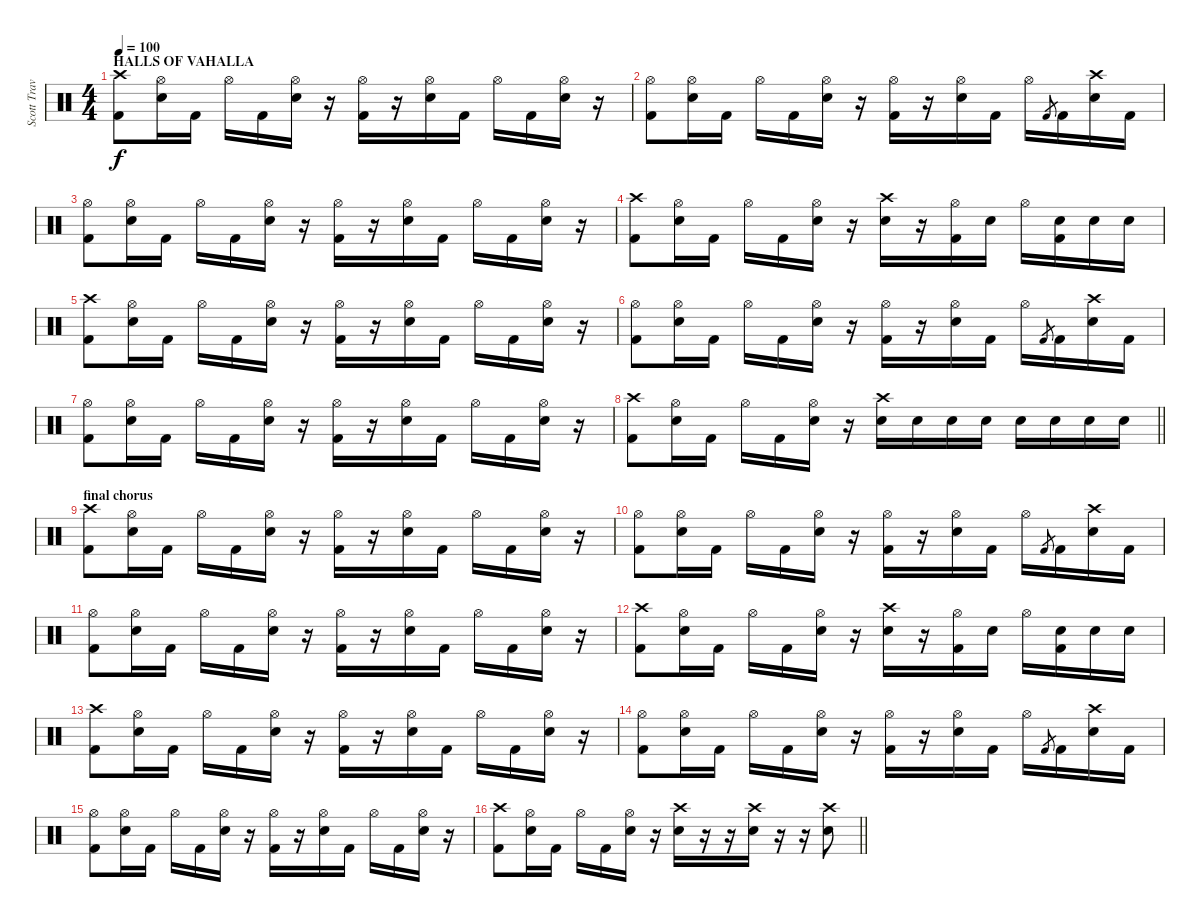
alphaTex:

\track ("Scott Travis" "Scott Trav") {instrument percussion}
\staff {score}
\articulation defaults
\ts (4 4)
\section ("" "HALLS OF VAHALLA")
\tempo 100
\clef neutral
\ks c
("Crash high (hit)" "Kick (hit) 2").8{dy f} ("Hi-Hat (open)" "Snare (hit) 2").16 "Kick (hit) 2".16 "Hi-Hat (open)".16 "Kick (hit) 2".16 ("Hi-Hat (open)" "Snare (hit) 2").16 r.16 ("Hi-Hat (open)" "Kick (hit) 2").16 r.16 ("Hi-Hat (open)" "Snare (hit) 2").16 "Kick (hit) 2".16 "Hi-Hat (open)".16 "Kick (hit) 2".16 ("Hi-Hat (open)" "Snare (hit) 2").16 r.16 |
("Hi-Hat (open)" "Kick (hit) 2").8 ("Hi-Hat (open)" "Snare (hit) 2").16 "Kick (hit) 2".16 "Hi-Hat (open)".16 "Kick (hit) 2".16 ("Hi-Hat (open)" "Snare (hit) 2").16 r.16 ("Hi-Hat (open)" "Kick (hit) 2").16 r.16 ("Hi-Hat (open)" "Snare (hit) 2").16 "Kick (hit) 2".16 "Hi-Hat (open)".16 "Kick (hit) 2".8{gr} "Kick (hit) 2".16 ("Crash high (hit)" "Snare (hit) 2").16 "Kick (hit) 2".16 |
("Hi-Hat (open)" "Kick (hit) 2").8 ("Hi-Hat (open)" "Snare (hit) 2").16 "Kick (hit) 2".16 "Hi-Hat (open)".16 "Kick (hit) 2".16 ("Hi-Hat (open)" "Snare (hit) 2").16 r.16 ("Hi-Hat (open)" "Kick (hit) 2").16 r.16 ("Hi-Hat (open)" "Snare (hit) 2").16 "Kick (hit) 2".16 "Hi-Hat (open)".16 "Kick (hit) 2".16 ("Hi-Hat (open)" "Snare (hit) 2").16 r.16 |
("Crash high (hit)" "Kick (hit) 2").8 ("Hi-Hat (open)" "Snare (hit) 2").16 "Kick (hit) 2".16 "Hi-Hat (open)".16 "Kick (hit) 2".16 ("Hi-Hat (open)" "Snare (hit) 2").16 r.16 ("Crash high (hit)" "Snare (hit) 2").16 r.16 ("Hi-Hat (open)" "Kick (hit) 2").16 "Snare (hit) 2".16 "Hi-Hat (open)".16 ("Snare (hit) 2" "Kick (hit) 2").16 "Snare (hit) 2".16 "Snare (hit) 2".16 |
("Crash high (hit)" "Kick (hit) 2").8 ("Hi-Hat (open)" "Snare (hit) 2").16 "Kick (hit) 2".16 "Hi-Hat (open)".16 "Kick (hit) 2".16 ("Hi-Hat (open)" "Snare (hit) 2").16 r.16 ("Hi-Hat (open)" "Kick (hit) 2").16 r.16 ("Hi-Hat (open)" "Snare (hit) 2").16 "Kick (hit) 2".16 "Hi-Hat (open)".16 "Kick (hit) 2".16 ("Hi-Hat (open)" "Snare (hit) 2").16 r.16 |
("Hi-Hat (open)" "Kick (hit) 2").8 ("Hi-Hat (open)" "Snare (hit) 2").16 "Kick (hit) 2".16 "Hi-Hat (open)".16 "Kick (hit) 2".16 ("Hi-Hat (open)" "Snare (hit) 2").16 r.16 ("Hi-Hat (open)" "Kick (hit) 2").16 r.16 ("Hi-Hat (open)" "Snare (hit) 2").16 "Kick (hit) 2".16 "Hi-Hat (open)".16 "Kick (hit) 2".8{gr} "Kick (hit) 2".16 ("Crash high (hit)" "Snare (hit) 2").16 "Kick (hit) 2".16 |
("Hi-Hat (open)" "Kick (hit) 2").8 ("Hi-Hat (open)" "Snare (hit) 2").16 "Kick (hit) 2".16 "Hi-Hat (open)".16 "Kick (hit) 2".16 ("Hi-Hat (open)" "Snare (hit) 2").16 r.16 ("Hi-Hat (open)" "Kick (hit) 2").16 r.16 ("Hi-Hat (open)" "Snare (hit) 2").16 "Kick (hit) 2".16 "Hi-Hat (open)".16 "Kick (hit) 2".16 ("Hi-Hat (open)" "Snare (hit) 2").16 r.16 |
\barLineRight lightlight
("Crash high (hit)" "Kick (hit) 2").8 ("Hi-Hat (open)" "Snare (hit) 2").16 "Kick (hit) 2".16 "Hi-Hat (open)".16 "Kick (hit) 2".16 ("Hi-Hat (open)" "Snare (hit) 2").16 r.16 ("Crash high (hit)" "Snare (hit) 2").16 "Snare (hit) 2".16 "Snare (hit) 2".16 "Snare (hit) 2".16 "Snare (hit) 2".16 "Snare (hit) 2".16 "Snare (hit) 2".16 "Snare (hit) 2".16 |
\section ("" "final chorus")
("Crash high (hit)" "Kick (hit) 2").8 ("Hi-Hat (open)" "Snare (hit) 2").16 "Kick (hit) 2".16 "Hi-Hat (open)".16 "Kick (hit) 2".16 ("Hi-Hat (open)" "Snare (hit) 2").16 r.16 ("Hi-Hat (open)" "Kick (hit) 2").16 r.16 ("Hi-Hat (open)" "Snare (hit) 2").16 "Kick (hit) 2".16 "Hi-Hat (open)".16 "Kick (hit) 2".16 ("Hi-Hat (open)" "Snare (hit) 2").16 r.16 |
("Hi-Hat (open)" "Kick (hit) 2").8 ("Hi-Hat (open)" "Snare (hit) 2").16 "Kick (hit) 2".16 "Hi-Hat (open)".16 "Kick (hit) 2".16 ("Hi-Hat (open)" "Snare (hit) 2").16 r.16 ("Hi-Hat (open)" "Kick (hit) 2").16 r.16 ("Hi-Hat (open)" "Snare (hit) 2").16 "Kick (hit) 2".16 "Hi-Hat (open)".16 "Kick (hit) 2".8{gr} "Kick (hit) 2".16 ("Crash high (hit)" "Snare (hit) 2").16 "Kick (hit) 2".16 |
("Hi-Hat (open)" "Kick (hit) 2").8 ("Hi-Hat (open)" "Snare (hit) 2").16 "Kick (hit) 2".16 "Hi-Hat (open)".16 "Kick (hit) 2".16 ("Hi-Hat (open)" "Snare (hit) 2").16 r.16 ("Hi-Hat (open)" "Kick (hit) 2").16 r.16 ("Hi-Hat (open)" "Snare (hit) 2").16 "Kick (hit) 2".16 "Hi-Hat (open)".16 "Kick (hit) 2".16 ("Hi-Hat (open)" "Snare (hit) 2").16 r.16 |
("Crash high (hit)" "Kick (hit) 2").8 ("Hi-Hat (open)" "Snare (hit) 2").16 "Kick (hit) 2".16 "Hi-Hat (open)".16 "Kick (hit) 2".16 ("Hi-Hat (open)" "Snare (hit) 2").16 r.16 ("Crash high (hit)" "Snare (hit) 2").16 r.16 ("Hi-Hat (open)" "Kick (hit) 2").16 "Snare (hit) 2".16 "Hi-Hat (open)".16 ("Snare (hit) 2" "Kick (hit) 2").16 "Snare (hit) 2".16 "Snare (hit) 2".16 |
("Crash high (hit)" "Kick (hit) 2").8 ("Hi-Hat (open)" "Snare (hit) 2").16 "Kick (hit) 2".16 "Hi-Hat (open)".16 "Kick (hit) 2".16 ("Hi-Hat (open)" "Snare (hit) 2").16 r.16 ("Hi-Hat (open)" "Kick (hit) 2").16 r.16 ("Hi-Hat (open)" "Snare (hit) 2").16 "Kick (hit) 2".16 "Hi-Hat (open)".16 "Kick (hit) 2".16 ("Hi-Hat (open)" "Snare (hit) 2").16 r.16 |
("Hi-Hat (open)" "Kick (hit) 2").8 ("Hi-Hat (open)" "Snare (hit) 2").16 "Kick (hit) 2".16 "Hi-Hat (open)".16 "Kick (hit) 2".16 ("Hi-Hat (open)" "Snare (hit) 2").16 r.16 ("Hi-Hat (open)" "Kick (hit) 2").16 r.16 ("Hi-Hat (open)" "Snare (hit) 2").16 "Kick (hit) 2".16 "Hi-Hat (open)".16 "Kick (hit) 2".8{gr} "Kick (hit) 2".16 ("Crash high (hit)" "Snare (hit) 2").16 "Kick (hit) 2".16 |
("Hi-Hat (open)" "Kick (hit) 2").8 ("Hi-Hat (open)" "Snare (hit) 2").16 "Kick (hit) 2".16 "Hi-Hat (open)".16 "Kick (hit) 2".16 ("Hi-Hat (open)" "Snare (hit) 2").16 r.16 ("Hi-Hat (open)" "Kick (hit) 2").16 r.16 ("Hi-Hat (open)" "Snare (hit) 2").16 "Kick (hit) 2".16 "Hi-Hat (open)".16 "Kick (hit) 2".16 ("Hi-Hat (open)" "Snare (hit) 2").16 r.16 |
\barLineRight lightlight
("Crash high (hit)" "Kick (hit) 2").8 ("Hi-Hat (open)" "Snare (hit) 2").16 "Kick (hit) 2".16 "Hi-Hat (open)".16 "Kick (hit) 2".16 ("Hi-Hat (open)" "Snare (hit) 2").16 r.16 ("Crash high (hit)" "Snare (hit) 2").16 r.16 r.16 ("Crash high (hit)" "Snare (hit) 2").16 r.16 r.16 ("Crash high (hit)" "Snare (hit) 2").8
